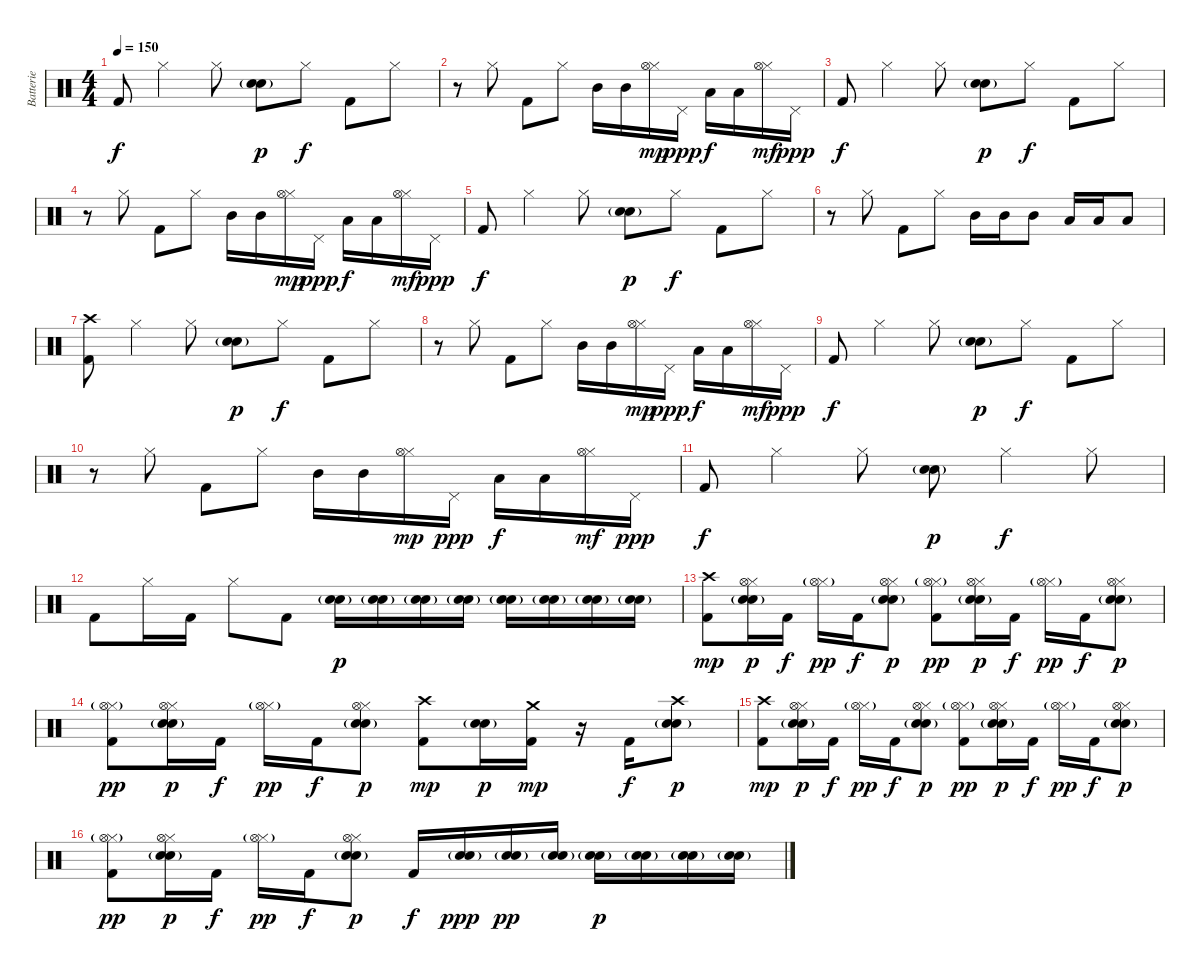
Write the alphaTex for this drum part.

\track ("Batterie" "Batterie") {instrument percussion}
\staff {score}
\articulation defaults
\ts (4 4)
\tempo 150
\clef neutral
\ks c "Kick (hit) 2".8{dy f} "Hi-Hat (closed)".4 "Hi-Hat (closed)".8
("Electric Snare (hit)" "Snare (hit) 2"{g}).8{dy p} "Hi-Hat (closed)".8{dy f} "Kick (hit) 2".8 "Hi-Hat (closed)".8 |
r.8 "Hi-Hat (closed)".8 "Kick (hit) 2".8 "Hi-Hat (closed)".8 "Mid Tom (hit)".16 "Mid Tom (hit)".16 ("Hi-Hat (closed)" "Hi-Hat (open)").16{dy mp} "Pedal Hi-Hat (hit)".16{dy ppp} "Low Tom (hit)".16{dy f} "Low Tom (hit)".16 ("Hi-Hat (closed)" "Hi-Hat (open)").16{dy mf} "Pedal Hi-Hat (hit)".16{dy ppp} |
"Kick (hit) 2".8{dy f} "Hi-Hat (closed)".4 "Hi-Hat (closed)".8 ("Electric Snare (hit)" "Snare (hit) 2"{g}).8{dy p} "Hi-Hat (closed)".8{dy f} "Kick (hit) 2".8 "Hi-Hat (closed)".8 |
r.8 "Hi-Hat (closed)".8 "Kick (hit) 2".8 "Hi-Hat (closed)".8 "Mid Tom (hit)".16 "Mid Tom (hit)".16 ("Hi-Hat (closed)" "Hi-Hat (open)").16{dy mp} "Pedal Hi-Hat (hit)".16{dy ppp} "Low Tom (hit)".16{dy f} "Low Tom (hit)".16 ("Hi-Hat (closed)" "Hi-Hat (open)").16{dy mf} "Pedal Hi-Hat (hit)".16{dy ppp} |
"Kick (hit) 2".8{dy f} "Hi-Hat (closed)".4 "Hi-Hat (closed)".8 ("Electric Snare (hit)" "Snare (hit) 2"{g}).8{dy p} "Hi-Hat (closed)".8{dy f} "Kick (hit) 2".8 "Hi-Hat (closed)".8 |
r.8 "Hi-Hat (closed)".8 "Kick (hit) 2".8 "Hi-Hat (closed)".8 "Mid Tom (hit)".16 "Mid Tom (hit)".16 "Mid Tom (hit)".8 "Low Tom (hit)".16 "Low Tom (hit)".16 "Low Tom (hit)".8 |
("Crash high (hit)" "Kick (hit) 2").8 "Hi-Hat (closed)".4 "Hi-Hat (closed)".8 ("Electric Snare (hit)" "Snare (hit) 2"{g}).8{dy p} "Hi-Hat (closed)".8{dy f} "Kick (hit) 2".8 "Hi-Hat (closed)".8 |
r.8 "Hi-Hat (closed)".8 "Kick (hit) 2".8 "Hi-Hat (closed)".8 "Mid Tom (hit)".16 "Mid Tom (hit)".16 ("Hi-Hat (closed)" "Hi-Hat (open)").16{dy mp} "Pedal Hi-Hat (hit)".16{dy ppp} "Low Tom (hit)".16{dy f} "Low Tom (hit)".16 ("Hi-Hat (closed)" "Hi-Hat (open)").16{dy mf} "Pedal Hi-Hat (hit)".16{dy ppp} |
"Kick (hit) 2".8{dy f} "Hi-Hat (closed)".4 "Hi-Hat (closed)".8 ("Electric Snare (hit)" "Snare (hit) 2"{g}).8{dy p} "Hi-Hat (closed)".8{dy f} "Kick (hit) 2".8 "Hi-Hat (closed)".8 |
r.8 "Hi-Hat (closed)".8 "Kick (hit) 2".8 "Hi-Hat (closed)".8 "Mid Tom (hit)".16 "Mid Tom (hit)".16 ("Hi-Hat (closed)" "Hi-Hat (open)").16{dy mp} "Pedal Hi-Hat (hit)".16{dy ppp} "Low Tom (hit)".16{dy f} "Low Tom (hit)".16 ("Hi-Hat (closed)" "Hi-Hat (open)").16{dy mf} "Pedal Hi-Hat (hit)".16{dy ppp} |
"Kick (hit) 2".8{dy f} "Hi-Hat (closed)".4 "Hi-Hat (closed)".8 ("Electric Snare (hit)" "Snare (hit) 2"{g}).8{dy p} "Hi-Hat (closed)".4{dy f} "Hi-Hat (closed)".8 |
"Kick (hit) 2".8 "Hi-Hat (closed)".16 "Kick (hit) 2".16 "Hi-Hat (closed)".8 "Kick (hit) 2".8 ("Electric Snare (hit)" "Snare (hit) 2"{g}).16{dy p} ("Electric Snare (hit)" "Snare (hit) 2"{g}).16 ("Electric Snare (hit)" "Snare (hit) 2"{g}).16 ("Electric Snare (hit)" "Snare (hit) 2"{g}).16 ("Electric Snare (hit)" "Snare (hit) 2"{g}).16 ("Electric Snare (hit)" "Snare (hit) 2"{g}).16 ("Electric Snare (hit)" "Snare (hit) 2"{g}).16 ("Electric Snare (hit)" "Snare (hit) 2"{g}).16 |
("Crash high (hit)" "Kick (hit) 2").8{dy mp} ("Hi-Hat (closed)" "Hi-Hat (open)" "Electric Snare (hit)" "Snare (hit) 2"{g}).16{dy p} "Kick (hit) 2".16{dy f} ("Hi-Hat (closed)"{g} "Hi-Hat (open)"{g}).16{dy pp} "Kick (hit) 2".16{dy f} ("Hi-Hat (closed)" "Hi-Hat (open)" "Electric Snare (hit)" "Snare (hit) 2"{g}).8{dy p} ("Hi-Hat (closed)"{g} "Hi-Hat (open)"{g} "Kick (hit) 2").8{dy pp} ("Hi-Hat (closed)" "Hi-Hat (open)" "Electric Snare (hit)" "Snare (hit) 2"{g}).16{dy p} "Kick (hit) 2".16{dy f} ("Hi-Hat (closed)"{g} "Hi-Hat (open)"{g}).16{dy pp} "Kick (hit) 2".16{dy f} ("Hi-Hat (closed)" "Hi-Hat (open)" "Electric Snare (hit)" "Snare (hit) 2"{g}).8{dy p} |
("Hi-Hat (closed)"{g} "Hi-Hat (open)"{g} "Kick (hit) 2").8{dy pp} ("Hi-Hat (closed)" "Hi-Hat (open)" "Electric Snare (hit)" "Snare (hit) 2"{g}).16{dy p} "Kick (hit) 2".16{dy f} ("Hi-Hat (closed)"{g} "Hi-Hat (open)"{g}).16{dy pp} "Kick (hit) 2".16{dy f} ("Hi-Hat (closed)" "Hi-Hat (open)" "Electric Snare (hit)" "Snare (hit) 2"{g}).8{dy p} ("Crash high (hit)" "Kick (hit) 2").8{dy mp} ("Electric Snare (hit)" "Snare (hit) 2"{g}).16{dy p} ("Crash medium (hit)" "Kick (hit) 2").16{dy mp} r.16 "Kick (hit) 2".16{dy f} ("Crash high (hit)" "Electric Snare (hit)" "Snare (hit) 2"{g}).8{dy p} |
("Crash high (hit)" "Kick (hit) 2").8{dy mp} ("Hi-Hat (closed)" "Hi-Hat (open)" "Electric Snare (hit)" "Snare (hit) 2"{g}).16{dy p} "Kick (hit) 2".16{dy f} ("Hi-Hat (closed)"{g} "Hi-Hat (open)"{g}).16{dy pp} "Kick (hit) 2".16{dy f} ("Hi-Hat (closed)" "Hi-Hat (open)" "Electric Snare (hit)" "Snare (hit) 2"{g}).8{dy p} ("Hi-Hat (closed)"{g} "Hi-Hat (open)"{g} "Kick (hit) 2").8{dy pp} ("Hi-Hat (closed)" "Hi-Hat (open)" "Electric Snare (hit)" "Snare (hit) 2"{g}).16{dy p} "Kick (hit) 2".16{dy f} ("Hi-Hat (closed)"{g} "Hi-Hat (open)"{g}).16{dy pp} "Kick (hit) 2".16{dy f} ("Hi-Hat (closed)" "Hi-Hat (open)" "Electric Snare (hit)" "Snare (hit) 2"{g}).8{dy p} |
("Hi-Hat (closed)"{g} "Hi-Hat (open)"{g} "Kick (hit) 2").8{dy pp} ("Hi-Hat (closed)" "Hi-Hat (open)" "Electric Snare (hit)" "Snare (hit) 2"{g}).16{dy p} "Kick (hit) 2".16{dy f} ("Hi-Hat (closed)"{g} "Hi-Hat (open)"{g}).16{dy pp} "Kick (hit) 2".16{dy f} ("Hi-Hat (closed)" "Hi-Hat (open)" "Electric Snare (hit)" "Snare (hit) 2"{g}).8{dy p} "Kick (hit) 2".16{dy f} ("Electric Snare (hit)"{g} "Snare (hit) 2"{g}).16{dy ppp} ("Electric Snare (hit)"{g} "Snare (hit) 2"{g}).16{dy pp} ("Electric Snare (hit)" "Snare (hit) 2"{g}).16 ("Electric Snare (hit)" "Snare (hit) 2"{g}).16{dy p} ("Electric Snare (hit)" "Snare (hit) 2"{g}).16 ("Electric Snare (hit)" "Snare (hit) 2"{g}).16 ("Electric Snare (hit)" "Snare (hit) 2"{g}).16
